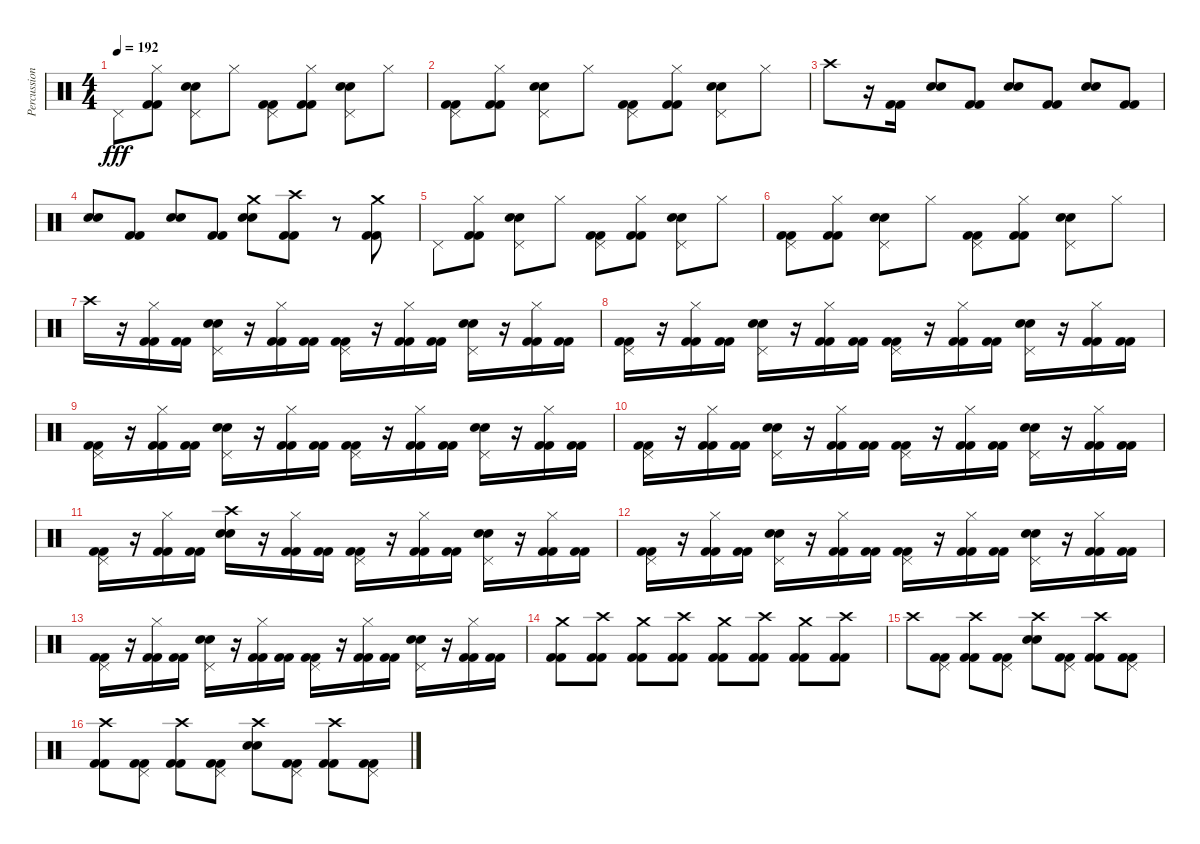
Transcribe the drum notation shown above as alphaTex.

\track ("Percussion" "Percussion") {instrument percussion}
\staff {score}
\articulation defaults
\ts (4 4)
\tempo 192
\clef neutral
\ks c "Pedal Hi-Hat (hit)".8{dy fff}
("Hi-Hat (closed)" "Kick (hit) 2" "Kick (hit) 2").8 ("Pedal Hi-Hat (hit)" "Snare (hit) 2" "Electric Snare (hit)").8 "Hi-Hat (closed)".8 ("Pedal Hi-Hat (hit)" "Kick (hit) 2" "Kick (hit) 2").8 ("Hi-Hat (closed)" "Kick (hit) 2" "Kick (hit) 2").8 ("Pedal Hi-Hat (hit)" "Snare (hit) 2" "Electric Snare (hit)").8 "Hi-Hat (closed)".8 |
("Pedal Hi-Hat (hit)" "Kick (hit) 2" "Kick (hit) 2").8 ("Hi-Hat (closed)" "Kick (hit) 2" "Kick (hit) 2").8 ("Pedal Hi-Hat (hit)" "Snare (hit) 2" "Electric Snare (hit)").8 "Hi-Hat (closed)".8 ("Pedal Hi-Hat (hit)" "Kick (hit) 2" "Kick (hit) 2").8 ("Hi-Hat (closed)" "Kick (hit) 2" "Kick (hit) 2").8 ("Pedal Hi-Hat (hit)" "Snare (hit) 2" "Electric Snare (hit)").8 "Hi-Hat (closed)".8 |
"Crash high (hit)".8 r.16 ("Kick (hit) 2" "Kick (hit) 2").16 ("Snare (hit) 2" "Electric Snare (hit)").8 ("Kick (hit) 2" "Kick (hit) 2").8 ("Snare (hit) 2" "Electric Snare (hit)").8 ("Kick (hit) 2" "Kick (hit) 2").8 ("Snare (hit) 2" "Electric Snare (hit)").8 ("Kick (hit) 2" "Kick (hit) 2").8 |
("Snare (hit) 2" "Electric Snare (hit)").8 ("Kick (hit) 2" "Kick (hit) 2").8 ("Snare (hit) 2" "Electric Snare (hit)").8 ("Kick (hit) 2" "Kick (hit) 2").8 ("Crash medium (hit)" "Snare (hit) 2" "Electric Snare (hit)").8 ("Crash high (hit)" "Kick (hit) 2" "Kick (hit) 2").8 r.8 ("Crash medium (hit)" "Kick (hit) 2" "Kick (hit) 2").8 |
"Pedal Hi-Hat (hit)".8 ("Hi-Hat (closed)" "Kick (hit) 2" "Kick (hit) 2").8 ("Pedal Hi-Hat (hit)" "Snare (hit) 2" "Electric Snare (hit)").8 "Hi-Hat (closed)".8 ("Pedal Hi-Hat (hit)" "Kick (hit) 2" "Kick (hit) 2").8 ("Hi-Hat (closed)" "Kick (hit) 2" "Kick (hit) 2").8 ("Pedal Hi-Hat (hit)" "Snare (hit) 2" "Electric Snare (hit)").8 "Hi-Hat (closed)".8 |
("Pedal Hi-Hat (hit)" "Kick (hit) 2" "Kick (hit) 2").8 ("Hi-Hat (closed)" "Kick (hit) 2" "Kick (hit) 2").8 ("Pedal Hi-Hat (hit)" "Snare (hit) 2" "Electric Snare (hit)").8 "Hi-Hat (closed)".8 ("Pedal Hi-Hat (hit)" "Kick (hit) 2" "Kick (hit) 2").8 ("Hi-Hat (closed)" "Kick (hit) 2" "Kick (hit) 2").8 ("Pedal Hi-Hat (hit)" "Snare (hit) 2" "Electric Snare (hit)").8 "Hi-Hat (closed)".8 |
"Crash high (hit)".16 r.16 ("Hi-Hat (closed)" "Kick (hit) 2" "Kick (hit) 2").16 ("Kick (hit) 2" "Kick (hit) 2").16 ("Pedal Hi-Hat (hit)" "Snare (hit) 2" "Electric Snare (hit)").16 r.16 ("Hi-Hat (closed)" "Kick (hit) 2" "Kick (hit) 2").16 ("Kick (hit) 2" "Kick (hit) 2").16 ("Pedal Hi-Hat (hit)" "Kick (hit) 2" "Kick (hit) 2").16 r.16 ("Hi-Hat (closed)" "Kick (hit) 2" "Kick (hit) 2").16 ("Kick (hit) 2" "Kick (hit) 2").16 ("Pedal Hi-Hat (hit)" "Snare (hit) 2" "Electric Snare (hit)").16 r.16 ("Hi-Hat (closed)" "Kick (hit) 2" "Kick (hit) 2").16 ("Kick (hit) 2" "Kick (hit) 2").16 |
("Pedal Hi-Hat (hit)" "Kick (hit) 2" "Kick (hit) 2").16 r.16 ("Hi-Hat (closed)" "Kick (hit) 2" "Kick (hit) 2").16 ("Kick (hit) 2" "Kick (hit) 2").16 ("Pedal Hi-Hat (hit)" "Snare (hit) 2" "Electric Snare (hit)").16 r.16 ("Hi-Hat (closed)" "Kick (hit) 2" "Kick (hit) 2").16 ("Kick (hit) 2" "Kick (hit) 2").16 ("Pedal Hi-Hat (hit)" "Kick (hit) 2" "Kick (hit) 2").16 r.16 ("Hi-Hat (closed)" "Kick (hit) 2" "Kick (hit) 2").16 ("Kick (hit) 2" "Kick (hit) 2").16 ("Pedal Hi-Hat (hit)" "Snare (hit) 2" "Electric Snare (hit)").16 r.16 ("Hi-Hat (closed)" "Kick (hit) 2" "Kick (hit) 2").16 ("Kick (hit) 2" "Kick (hit) 2").16 |
("Pedal Hi-Hat (hit)" "Kick (hit) 2" "Kick (hit) 2").16 r.16 ("Hi-Hat (closed)" "Kick (hit) 2" "Kick (hit) 2").16 ("Kick (hit) 2" "Kick (hit) 2").16 ("Pedal Hi-Hat (hit)" "Snare (hit) 2" "Electric Snare (hit)").16 r.16 ("Hi-Hat (closed)" "Kick (hit) 2" "Kick (hit) 2").16 ("Kick (hit) 2" "Kick (hit) 2").16 ("Pedal Hi-Hat (hit)" "Kick (hit) 2" "Kick (hit) 2").16 r.16 ("Hi-Hat (closed)" "Kick (hit) 2" "Kick (hit) 2").16 ("Kick (hit) 2" "Kick (hit) 2").16 ("Pedal Hi-Hat (hit)" "Snare (hit) 2" "Electric Snare (hit)").16 r.16 ("Hi-Hat (closed)" "Kick (hit) 2" "Kick (hit) 2").16 ("Kick (hit) 2" "Kick (hit) 2").16 |
("Pedal Hi-Hat (hit)" "Kick (hit) 2" "Kick (hit) 2").16 r.16 ("Hi-Hat (closed)" "Kick (hit) 2" "Kick (hit) 2").16 ("Kick (hit) 2" "Kick (hit) 2").16 ("Pedal Hi-Hat (hit)" "Snare (hit) 2" "Electric Snare (hit)").16 r.16 ("Hi-Hat (closed)" "Kick (hit) 2" "Kick (hit) 2").16 ("Kick (hit) 2" "Kick (hit) 2").16 ("Pedal Hi-Hat (hit)" "Kick (hit) 2" "Kick (hit) 2").16 r.16 ("Hi-Hat (closed)" "Kick (hit) 2" "Kick (hit) 2").16 ("Kick (hit) 2" "Kick (hit) 2").16 ("Pedal Hi-Hat (hit)" "Snare (hit) 2" "Electric Snare (hit)").16 r.16 ("Hi-Hat (closed)" "Kick (hit) 2" "Kick (hit) 2").16 ("Kick (hit) 2" "Kick (hit) 2").16 |
("Pedal Hi-Hat (hit)" "Kick (hit) 2" "Kick (hit) 2").16 r.16 ("Hi-Hat (closed)" "Kick (hit) 2" "Kick (hit) 2").16 ("Kick (hit) 2" "Kick (hit) 2").16 ("Crash high (hit)" "Snare (hit) 2" "Electric Snare (hit)").16 r.16 ("Hi-Hat (closed)" "Kick (hit) 2" "Kick (hit) 2").16 ("Kick (hit) 2" "Kick (hit) 2").16 ("Pedal Hi-Hat (hit)" "Kick (hit) 2" "Kick (hit) 2").16 r.16 ("Hi-Hat (closed)" "Kick (hit) 2" "Kick (hit) 2").16 ("Kick (hit) 2" "Kick (hit) 2").16 ("Pedal Hi-Hat (hit)" "Snare (hit) 2" "Electric Snare (hit)").16 r.16 ("Hi-Hat (closed)" "Kick (hit) 2" "Kick (hit) 2").16 ("Kick (hit) 2" "Kick (hit) 2").16 |
("Pedal Hi-Hat (hit)" "Kick (hit) 2" "Kick (hit) 2").16 r.16 ("Hi-Hat (closed)" "Kick (hit) 2" "Kick (hit) 2").16 ("Kick (hit) 2" "Kick (hit) 2").16 ("Pedal Hi-Hat (hit)" "Snare (hit) 2" "Electric Snare (hit)").16 r.16 ("Hi-Hat (closed)" "Kick (hit) 2" "Kick (hit) 2").16 ("Kick (hit) 2" "Kick (hit) 2").16 ("Pedal Hi-Hat (hit)" "Kick (hit) 2" "Kick (hit) 2").16 r.16 ("Hi-Hat (closed)" "Kick (hit) 2" "Kick (hit) 2").16 ("Kick (hit) 2" "Kick (hit) 2").16 ("Pedal Hi-Hat (hit)" "Snare (hit) 2" "Electric Snare (hit)").16 r.16 ("Hi-Hat (closed)" "Kick (hit) 2" "Kick (hit) 2").16 ("Kick (hit) 2" "Kick (hit) 2").16 |
("Pedal Hi-Hat (hit)" "Kick (hit) 2" "Kick (hit) 2").16 r.16 ("Hi-Hat (closed)" "Kick (hit) 2" "Kick (hit) 2").16 ("Kick (hit) 2" "Kick (hit) 2").16 ("Pedal Hi-Hat (hit)" "Snare (hit) 2" "Electric Snare (hit)").16 r.16 ("Hi-Hat (closed)" "Kick (hit) 2" "Kick (hit) 2").16 ("Kick (hit) 2" "Kick (hit) 2").16 ("Pedal Hi-Hat (hit)" "Kick (hit) 2" "Kick (hit) 2").16 r.16 ("Hi-Hat (closed)" "Kick (hit) 2" "Kick (hit) 2").16 ("Kick (hit) 2" "Kick (hit) 2").16 ("Pedal Hi-Hat (hit)" "Snare (hit) 2" "Electric Snare (hit)").16 r.16 ("Hi-Hat (closed)" "Kick (hit) 2" "Kick (hit) 2").16 ("Kick (hit) 2" "Kick (hit) 2").16 |
("Crash medium (hit)" "Kick (hit) 2" "Kick (hit) 2").8 ("Crash high (hit)" "Kick (hit) 2" "Kick (hit) 2").8 ("Crash medium (hit)" "Kick (hit) 2" "Kick (hit) 2").8 ("Crash high (hit)" "Kick (hit) 2" "Kick (hit) 2").8 ("Crash medium (hit)" "Kick (hit) 2" "Kick (hit) 2").8 ("Crash high (hit)" "Kick (hit) 2" "Kick (hit) 2").8 ("Crash medium (hit)" "Kick (hit) 2" "Kick (hit) 2").8 ("Crash high (hit)" "Kick (hit) 2" "Kick (hit) 2").8 |
"Crash high (hit)".8 ("Pedal Hi-Hat (hit)" "Kick (hit) 2" "Kick (hit) 2").8 ("Crash high (hit)" "Kick (hit) 2" "Kick (hit) 2").8 ("Pedal Hi-Hat (hit)" "Kick (hit) 2" "Kick (hit) 2").8 ("Crash high (hit)" "Snare (hit) 2" "Electric Snare (hit)").8 ("Pedal Hi-Hat (hit)" "Kick (hit) 2" "Kick (hit) 2").8 ("Crash high (hit)" "Kick (hit) 2" "Kick (hit) 2").8 ("Pedal Hi-Hat (hit)" "Kick (hit) 2" "Kick (hit) 2").8 |
("Crash high (hit)" "Kick (hit) 2" "Kick (hit) 2").8 ("Pedal Hi-Hat (hit)" "Kick (hit) 2" "Kick (hit) 2").8 ("Crash high (hit)" "Kick (hit) 2" "Kick (hit) 2").8 ("Pedal Hi-Hat (hit)" "Kick (hit) 2" "Kick (hit) 2").8 ("Crash high (hit)" "Snare (hit) 2" "Electric Snare (hit)").8 ("Pedal Hi-Hat (hit)" "Kick (hit) 2" "Kick (hit) 2").8 ("Crash high (hit)" "Kick (hit) 2" "Kick (hit) 2").8 ("Pedal Hi-Hat (hit)" "Kick (hit) 2" "Kick (hit) 2").8
